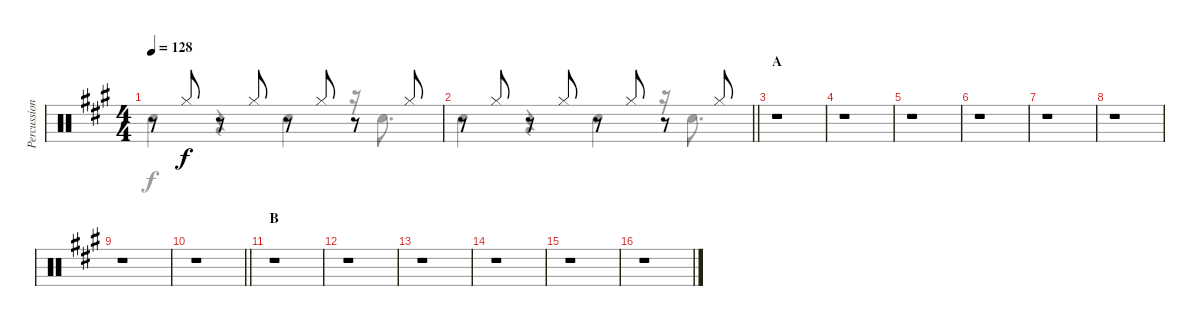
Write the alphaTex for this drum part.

\track ("Percussion" "Percussion") {instrument percussion}
\staff {score}
\articulation defaults
\voice
\ts (4 4)
\tempo 128
\clef neutral
\ks a
r.8{dy f} "Hi-Hat (closed)".8 r.8 "Hi-Hat (closed)".8 r.8 "Hi-Hat (closed)".8 r.8 "Hi-Hat (closed)".8 |
\barLineRight lightlight
r.8 "Hi-Hat (closed)".8 r.8 "Hi-Hat (closed)".8 r.8 "Hi-Hat (closed)".8 r.8 "Hi-Hat (closed)".8 |
\section ("" "A")
r.1 |
r.1 |
r.1 |
r.1 |
r.1 |
r.1 |
r.1 |
\barLineRight lightlight
r.1 |
\section ("" "B")
r.1 |
r.1 |
r.1 |
r.1 |
r.1 |
r.1
\voice
\clef neutral
\ottava regular
\simile none
\ks a "Snare (hit) 2".4{dy f}
r.4 "Snare (hit) 2".4 r.16 "Snare (hit) 2".8{d} |
\barLineRight lightlight "Snare (hit) 2".4
r.4 "Snare (hit) 2".4 r.16 "Snare (hit) 2".8{d} |
|
|
|
|
|
|
|
\barLineRight lightlight
|
|
|
|
|
|
